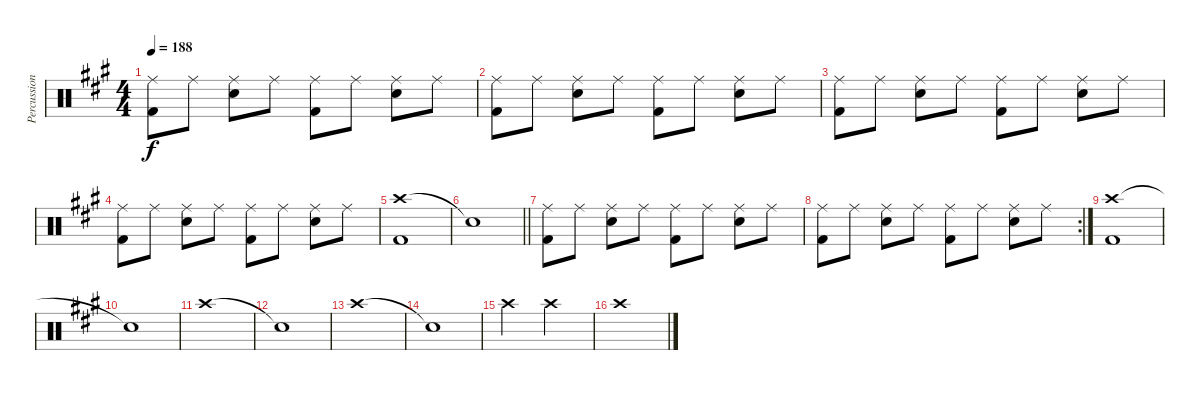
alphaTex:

\track ("Percussion" "Percussion") {instrument percussion}
\staff {score}
\articulation defaults
\ts (4 4)
\tempo 188
\clef neutral
\ks a
("Ride (middle)" "Kick (hit) 2").8{dy f} "Ride (middle)".8 ("Ride (middle)" "Snare (hit) 2").8 "Ride (middle)".8 ("Ride (middle)" "Kick (hit) 2").8 "Ride (middle)".8 ("Ride (middle)" "Snare (hit) 2").8 "Ride (middle)".8 |
("Ride (middle)" "Kick (hit) 2").8 "Ride (middle)".8 ("Ride (middle)" "Snare (hit) 2").8 "Ride (middle)".8 ("Ride (middle)" "Kick (hit) 2").8 "Ride (middle)".8 ("Ride (middle)" "Snare (hit) 2").8 "Ride (middle)".8 |
("Ride (middle)" "Kick (hit) 2").8 "Ride (middle)".8 ("Ride (middle)" "Snare (hit) 2").8 "Ride (middle)".8 ("Ride (middle)" "Kick (hit) 2").8 "Ride (middle)".8 ("Ride (middle)" "Snare (hit) 2").8 "Ride (middle)".8 |
("Ride (middle)" "Kick (hit) 2").8 "Ride (middle)".8 ("Ride (middle)" "Snare (hit) 2").8 "Ride (middle)".8 ("Ride (middle)" "Kick (hit) 2").8 "Ride (middle)".8 ("Ride (middle)" "Snare (hit) 2").8 "Ride (middle)".8 |
("Crash high (hit)" "Kick (hit) 2").1 |
\barLineRight lightlight "Snare (hit)"{t}.1
|
("Ride (middle)" "Kick (hit) 2").8 "Ride (middle)".8 ("Ride (middle)" "Snare (hit) 2").8 "Ride (middle)".8 ("Ride (middle)" "Kick (hit) 2").8 "Ride (middle)".8 ("Ride (middle)" "Snare (hit) 2").8 "Ride (middle)".8 |
\rc 2
("Ride (middle)" "Kick (hit) 2").8 "Ride (middle)".8 ("Ride (middle)" "Snare (hit) 2").8 "Ride (middle)".8 ("Ride (middle)" "Kick (hit) 2").8 "Ride (middle)".8 ("Ride (middle)" "Snare (hit) 2").8 "Ride (middle)".8 |
("Crash high (hit)" "Kick (hit) 2").1 |
"Snare (hit)"{t}.1 |
"Crash high (hit)".1 |
"Snare (hit)"{t}.1 |
"Crash high (hit)".1 |
"Snare (hit)"{t}.1 |
"Crash high (hit)".2 "Crash high (hit)".2 |
"Crash high (hit)".1
